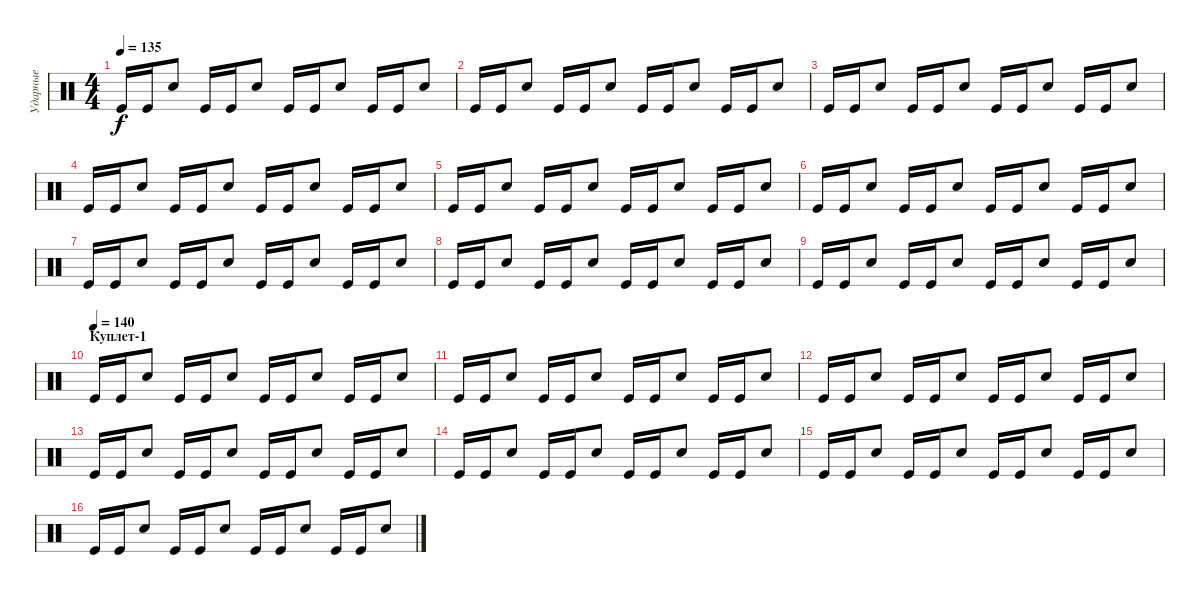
\track ("Ударные" "Ударные") {instrument percussion}
\staff {score}
\articulation defaults
\ts (4 4)
\tempo 135
\clef neutral
\ks c "Kick (hit)".16{dy f} "Kick (hit)".16 "Electric Snare (hit)".8 "Kick (hit)".16 "Kick (hit)".16 "Electric Snare (hit)".8 "Kick (hit)".16 "Kick (hit)".16 "Electric Snare (hit)".8 "Kick (hit)".16 "Kick (hit)".16 "Electric Snare (hit)".8
|
"Kick (hit)".16 "Kick (hit)".16 "Electric Snare (hit)".8 "Kick (hit)".16 "Kick (hit)".16 "Electric Snare (hit)".8 "Kick (hit)".16 "Kick (hit)".16 "Electric Snare (hit)".8 "Kick (hit)".16 "Kick (hit)".16 "Electric Snare (hit)".8 |
"Kick (hit)".16 "Kick (hit)".16 "Electric Snare (hit)".8 "Kick (hit)".16 "Kick (hit)".16 "Electric Snare (hit)".8 "Kick (hit)".16 "Kick (hit)".16 "Electric Snare (hit)".8 "Kick (hit)".16 "Kick (hit)".16 "Electric Snare (hit)".8 |
"Kick (hit)".16 "Kick (hit)".16 "Electric Snare (hit)".8 "Kick (hit)".16 "Kick (hit)".16 "Electric Snare (hit)".8 "Kick (hit)".16 "Kick (hit)".16 "Electric Snare (hit)".8 "Kick (hit)".16 "Kick (hit)".16 "Electric Snare (hit)".8 |
"Kick (hit)".16 "Kick (hit)".16 "Electric Snare (hit)".8 "Kick (hit)".16 "Kick (hit)".16 "Electric Snare (hit)".8 "Kick (hit)".16 "Kick (hit)".16 "Electric Snare (hit)".8 "Kick (hit)".16 "Kick (hit)".16 "Electric Snare (hit)".8 |
"Kick (hit)".16 "Kick (hit)".16 "Electric Snare (hit)".8 "Kick (hit)".16 "Kick (hit)".16 "Electric Snare (hit)".8 "Kick (hit)".16 "Kick (hit)".16 "Electric Snare (hit)".8 "Kick (hit)".16 "Kick (hit)".16 "Electric Snare (hit)".8 |
"Kick (hit)".16 "Kick (hit)".16 "Electric Snare (hit)".8 "Kick (hit)".16 "Kick (hit)".16 "Electric Snare (hit)".8 "Kick (hit)".16 "Kick (hit)".16 "Electric Snare (hit)".8 "Kick (hit)".16 "Kick (hit)".16 "Electric Snare (hit)".8 |
"Kick (hit)".16 "Kick (hit)".16 "Electric Snare (hit)".8 "Kick (hit)".16 "Kick (hit)".16 "Electric Snare (hit)".8 "Kick (hit)".16 "Kick (hit)".16 "Electric Snare (hit)".8 "Kick (hit)".16 "Kick (hit)".16 "Electric Snare (hit)".8 |
"Kick (hit)".16 "Kick (hit)".16 "Electric Snare (hit)".8 "Kick (hit)".16 "Kick (hit)".16 "Electric Snare (hit)".8 "Kick (hit)".16 "Kick (hit)".16 "Electric Snare (hit)".8 "Kick (hit)".16 "Kick (hit)".16 "Electric Snare (hit)".8 |
\section ("" "Куплет-1")
\tempo (140)
"Kick (hit)".16 "Kick (hit)".16 "Electric Snare (hit)".8 "Kick (hit)".16 "Kick (hit)".16 "Electric Snare (hit)".8 "Kick (hit)".16 "Kick (hit)".16 "Electric Snare (hit)".8 "Kick (hit)".16 "Kick (hit)".16 "Electric Snare (hit)".8 |
"Kick (hit)".16 "Kick (hit)".16 "Electric Snare (hit)".8 "Kick (hit)".16 "Kick (hit)".16 "Electric Snare (hit)".8 "Kick (hit)".16 "Kick (hit)".16 "Electric Snare (hit)".8 "Kick (hit)".16 "Kick (hit)".16 "Electric Snare (hit)".8 |
"Kick (hit)".16 "Kick (hit)".16 "Electric Snare (hit)".8 "Kick (hit)".16 "Kick (hit)".16 "Electric Snare (hit)".8 "Kick (hit)".16 "Kick (hit)".16 "Electric Snare (hit)".8 "Kick (hit)".16 "Kick (hit)".16 "Electric Snare (hit)".8 |
"Kick (hit)".16 "Kick (hit)".16 "Electric Snare (hit)".8 "Kick (hit)".16 "Kick (hit)".16 "Electric Snare (hit)".8 "Kick (hit)".16 "Kick (hit)".16 "Electric Snare (hit)".8 "Kick (hit)".16 "Kick (hit)".16 "Electric Snare (hit)".8 |
"Kick (hit)".16 "Kick (hit)".16 "Electric Snare (hit)".8 "Kick (hit)".16 "Kick (hit)".16 "Electric Snare (hit)".8 "Kick (hit)".16 "Kick (hit)".16 "Electric Snare (hit)".8 "Kick (hit)".16 "Kick (hit)".16 "Electric Snare (hit)".8 |
"Kick (hit)".16 "Kick (hit)".16 "Electric Snare (hit)".8 "Kick (hit)".16 "Kick (hit)".16 "Electric Snare (hit)".8 "Kick (hit)".16 "Kick (hit)".16 "Electric Snare (hit)".8 "Kick (hit)".16 "Kick (hit)".16 "Electric Snare (hit)".8 |
"Kick (hit)".16 "Kick (hit)".16 "Electric Snare (hit)".8 "Kick (hit)".16 "Kick (hit)".16 "Electric Snare (hit)".8 "Kick (hit)".16 "Kick (hit)".16 "Electric Snare (hit)".8 "Kick (hit)".16 "Kick (hit)".16 "Electric Snare (hit)".8
